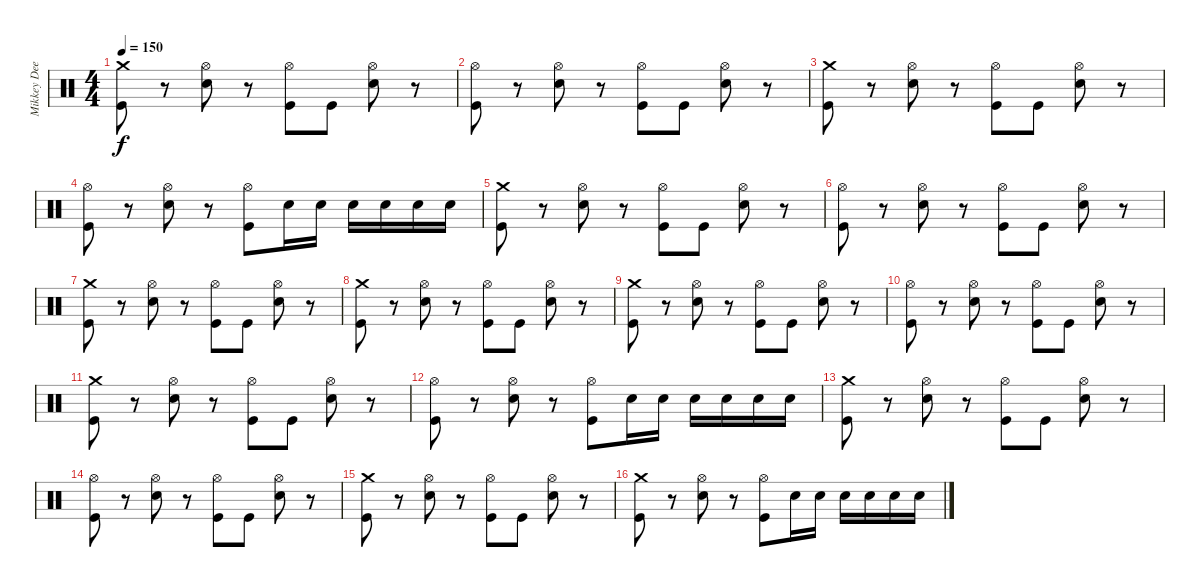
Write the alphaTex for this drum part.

\track ("Mikkey Dee" "Mikkey Dee") {instrument percussion}
\staff {score}
\articulation defaults
\ts (4 4)
\tempo 150
\clef neutral
\ks c
("Crash medium (hit)" "Kick (hit)").8{dy f} r.8 ("Hi-Hat (open)" "Snare (hit) 2").8 r.8 ("Hi-Hat (open)" "Kick (hit)").8 "Kick (hit)".8 ("Hi-Hat (open)" "Snare (hit) 2").8 r.8 |
("Hi-Hat (open)" "Kick (hit)").8 r.8 ("Hi-Hat (open)" "Snare (hit) 2").8 r.8 ("Hi-Hat (open)" "Kick (hit)").8 "Kick (hit)".8 ("Hi-Hat (open)" "Snare (hit) 2").8 r.8 |
("Crash medium (hit)" "Kick (hit)").8 r.8 ("Hi-Hat (open)" "Snare (hit) 2").8 r.8 ("Hi-Hat (open)" "Kick (hit)").8 "Kick (hit)".8 ("Hi-Hat (open)" "Snare (hit) 2").8 r.8 |
("Hi-Hat (open)" "Kick (hit)").8 r.8 ("Hi-Hat (open)" "Snare (hit) 2").8 r.8 ("Hi-Hat (open)" "Kick (hit)").8 "Snare (hit) 2".16 "Snare (hit) 2".16 "Snare (hit) 2".16 "Snare (hit) 2".16 "Snare (hit) 2".16 "Snare (hit) 2".16 |
("Crash medium (hit)" "Kick (hit)").8 r.8 ("Hi-Hat (open)" "Snare (hit) 2").8 r.8 ("Hi-Hat (open)" "Kick (hit)").8 "Kick (hit)".8 ("Hi-Hat (open)" "Snare (hit) 2").8 r.8 |
("Hi-Hat (open)" "Kick (hit)").8 r.8 ("Hi-Hat (open)" "Snare (hit) 2").8 r.8 ("Hi-Hat (open)" "Kick (hit)").8 "Kick (hit)".8 ("Hi-Hat (open)" "Snare (hit) 2").8 r.8 |
("Crash medium (hit)" "Kick (hit)").8 r.8 ("Hi-Hat (open)" "Snare (hit) 2").8 r.8 ("Hi-Hat (open)" "Kick (hit)").8 "Kick (hit)".8 ("Hi-Hat (open)" "Snare (hit) 2").8 r.8 |
("Crash medium (hit)" "Kick (hit)").8 r.8 ("Hi-Hat (open)" "Snare (hit) 2").8 r.8 ("Hi-Hat (open)" "Kick (hit)").8 "Kick (hit)".8 ("Hi-Hat (open)" "Snare (hit) 2").8 r.8 |
("Crash medium (hit)" "Kick (hit)").8 r.8 ("Hi-Hat (open)" "Snare (hit) 2").8 r.8 ("Hi-Hat (open)" "Kick (hit)").8 "Kick (hit)".8 ("Hi-Hat (open)" "Snare (hit) 2").8 r.8 |
("Hi-Hat (open)" "Kick (hit)").8 r.8 ("Hi-Hat (open)" "Snare (hit) 2").8 r.8 ("Hi-Hat (open)" "Kick (hit)").8 "Kick (hit)".8 ("Hi-Hat (open)" "Snare (hit) 2").8 r.8 |
("Crash medium (hit)" "Kick (hit)").8 r.8 ("Hi-Hat (open)" "Snare (hit) 2").8 r.8 ("Hi-Hat (open)" "Kick (hit)").8 "Kick (hit)".8 ("Hi-Hat (open)" "Snare (hit) 2").8 r.8 |
("Hi-Hat (open)" "Kick (hit)").8 r.8 ("Hi-Hat (open)" "Snare (hit) 2").8 r.8 ("Hi-Hat (open)" "Kick (hit)").8 "Snare (hit) 2".16 "Snare (hit) 2".16 "Snare (hit) 2".16 "Snare (hit) 2".16 "Snare (hit) 2".16 "Snare (hit) 2".16 |
("Crash medium (hit)" "Kick (hit)").8 r.8 ("Hi-Hat (open)" "Snare (hit) 2").8 r.8 ("Hi-Hat (open)" "Kick (hit)").8 "Kick (hit)".8 ("Hi-Hat (open)" "Snare (hit) 2").8 r.8 |
("Hi-Hat (open)" "Kick (hit)").8 r.8 ("Hi-Hat (open)" "Snare (hit) 2").8 r.8 ("Hi-Hat (open)" "Kick (hit)").8 "Kick (hit)".8 ("Hi-Hat (open)" "Snare (hit) 2").8 r.8 |
("Crash medium (hit)" "Kick (hit)").8 r.8 ("Hi-Hat (open)" "Snare (hit) 2").8 r.8 ("Hi-Hat (open)" "Kick (hit)").8 "Kick (hit)".8 ("Hi-Hat (open)" "Snare (hit) 2").8 r.8 |
("Crash medium (hit)" "Kick (hit)").8 r.8 ("Hi-Hat (open)" "Snare (hit) 2").8 r.8 ("Hi-Hat (open)" "Kick (hit)").8 "Snare (hit) 2".16 "Snare (hit) 2".16 "Snare (hit) 2".16 "Snare (hit) 2".16 "Snare (hit) 2".16 "Snare (hit) 2".16
